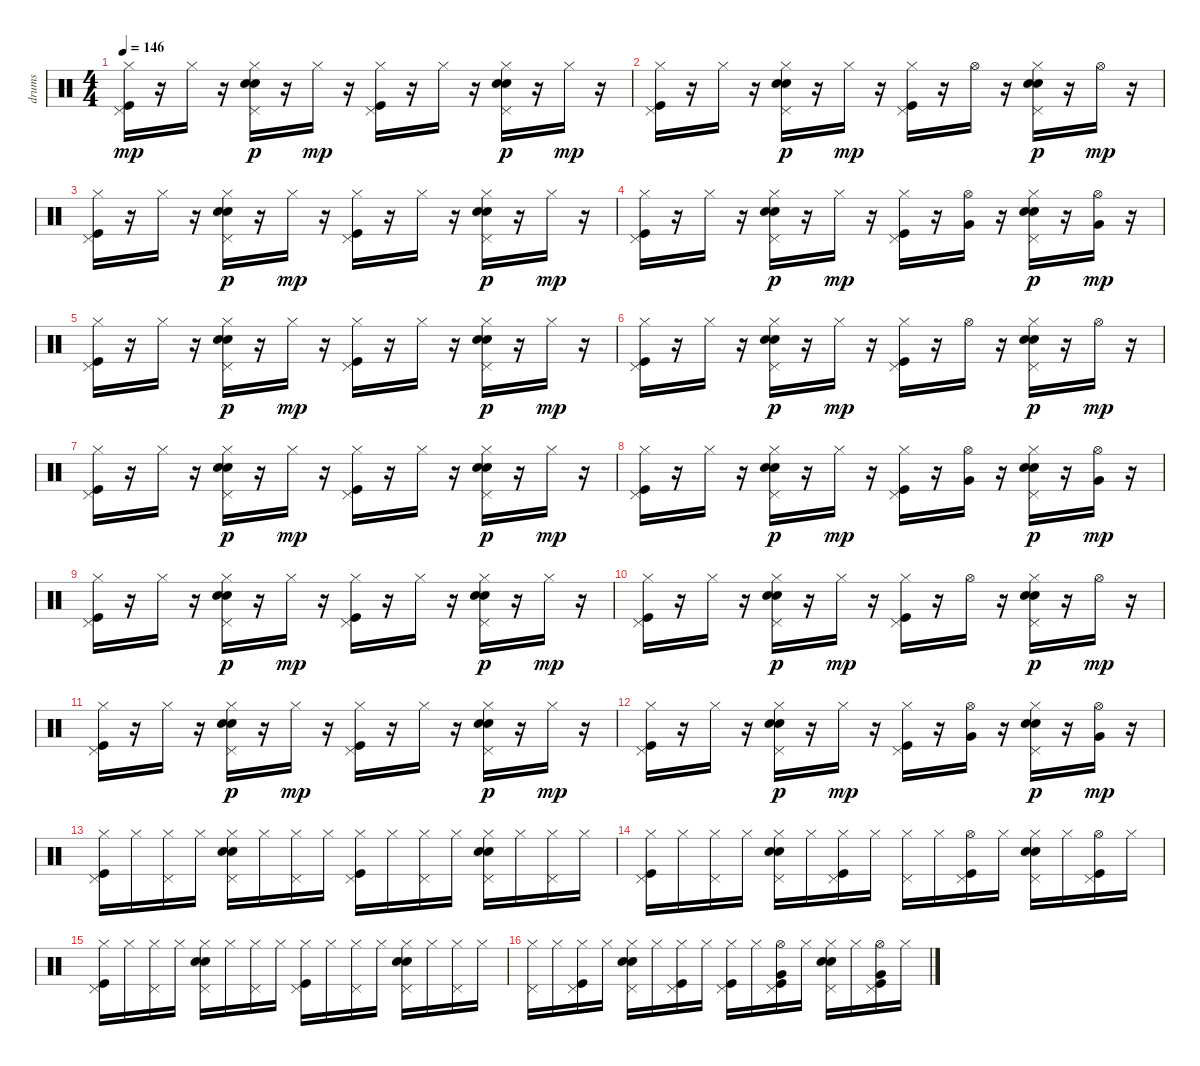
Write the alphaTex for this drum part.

\track ("drums" "drums") {instrument percussion}
\staff {score}
\articulation defaults
\ts (4 4)
\tempo 146
\clef neutral
\ks c
("Kick (hit)" "Pedal Hi-Hat (hit)" "Hi-Hat (closed)").16{dy mp} r.16 "Hi-Hat (closed)".16 r.16 ("Pedal Hi-Hat (hit)" "Snare (hit) 2" "Hi-Hat (closed)" "Electric Snare (hit)").16{dy p} r.16 "Hi-Hat (closed)".16{dy mp} r.16 ("Kick (hit)" "Pedal Hi-Hat (hit)" "Hi-Hat (closed)").16 r.16 "Hi-Hat (closed)".16 r.16 ("Pedal Hi-Hat (hit)" "Snare (hit) 2" "Hi-Hat (closed)" "Electric Snare (hit)").16{dy p} r.16 "Hi-Hat (closed)".16{dy mp} r.16 |
("Kick (hit)" "Pedal Hi-Hat (hit)" "Hi-Hat (closed)").16 r.16 "Hi-Hat (closed)".16 r.16 ("Pedal Hi-Hat (hit)" "Snare (hit) 2" "Hi-Hat (closed)" "Electric Snare (hit)").16{dy p} r.16 "Hi-Hat (closed)".16{dy mp} r.16 ("Kick (hit)" "Pedal Hi-Hat (hit)" "Hi-Hat (closed)").16 r.16 "Hi-Hat (open)".16 r.16 ("Pedal Hi-Hat (hit)" "Snare (hit) 2" "Hi-Hat (closed)" "Electric Snare (hit)").16{dy p} r.16 "Hi-Hat (open)".16{dy mp} r.16 |
("Kick (hit)" "Pedal Hi-Hat (hit)" "Hi-Hat (closed)").16 r.16 "Hi-Hat (closed)".16 r.16 ("Pedal Hi-Hat (hit)" "Snare (hit) 2" "Hi-Hat (closed)" "Electric Snare (hit)").16{dy p} r.16 "Hi-Hat (closed)".16{dy mp} r.16 ("Kick (hit)" "Pedal Hi-Hat (hit)" "Hi-Hat (closed)").16 r.16 "Hi-Hat (closed)".16 r.16 ("Pedal Hi-Hat (hit)" "Snare (hit) 2" "Hi-Hat (closed)" "Electric Snare (hit)").16{dy p} r.16 "Hi-Hat (closed)".16{dy mp} r.16 |
("Kick (hit)" "Pedal Hi-Hat (hit)" "Hi-Hat (closed)").16 r.16 "Hi-Hat (closed)".16 r.16 ("Pedal Hi-Hat (hit)" "Snare (hit) 2" "Hi-Hat (closed)" "Electric Snare (hit)").16{dy p} r.16 "Hi-Hat (closed)".16{dy mp} r.16 ("Kick (hit)" "Pedal Hi-Hat (hit)" "Hi-Hat (closed)").16 r.16 ("Hi-Hat (open)" "Very Low Tom (hit)").16 r.16 ("Pedal Hi-Hat (hit)" "Snare (hit) 2" "Hi-Hat (closed)" "Electric Snare (hit)").16{dy p} r.16 ("Hi-Hat (open)" "Very Low Tom (hit)").16{dy mp} r.16 |
("Kick (hit)" "Pedal Hi-Hat (hit)" "Hi-Hat (closed)").16 r.16 "Hi-Hat (closed)".16 r.16 ("Pedal Hi-Hat (hit)" "Snare (hit) 2" "Hi-Hat (closed)" "Electric Snare (hit)").16{dy p} r.16 "Hi-Hat (closed)".16{dy mp} r.16 ("Kick (hit)" "Pedal Hi-Hat (hit)" "Hi-Hat (closed)").16 r.16 "Hi-Hat (closed)".16 r.16 ("Pedal Hi-Hat (hit)" "Snare (hit) 2" "Hi-Hat (closed)" "Electric Snare (hit)").16{dy p} r.16 "Hi-Hat (closed)".16{dy mp} r.16 |
("Kick (hit)" "Pedal Hi-Hat (hit)" "Hi-Hat (closed)").16 r.16 "Hi-Hat (closed)".16 r.16 ("Pedal Hi-Hat (hit)" "Snare (hit) 2" "Hi-Hat (closed)" "Electric Snare (hit)").16{dy p} r.16 "Hi-Hat (closed)".16{dy mp} r.16 ("Kick (hit)" "Pedal Hi-Hat (hit)" "Hi-Hat (closed)").16 r.16 "Hi-Hat (open)".16 r.16 ("Pedal Hi-Hat (hit)" "Snare (hit) 2" "Hi-Hat (closed)" "Electric Snare (hit)").16{dy p} r.16 "Hi-Hat (open)".16{dy mp} r.16 |
("Kick (hit)" "Pedal Hi-Hat (hit)" "Hi-Hat (closed)").16 r.16 "Hi-Hat (closed)".16 r.16 ("Pedal Hi-Hat (hit)" "Snare (hit) 2" "Hi-Hat (closed)" "Electric Snare (hit)").16{dy p} r.16 "Hi-Hat (closed)".16{dy mp} r.16 ("Kick (hit)" "Pedal Hi-Hat (hit)" "Hi-Hat (closed)").16 r.16 "Hi-Hat (closed)".16 r.16 ("Pedal Hi-Hat (hit)" "Snare (hit) 2" "Hi-Hat (closed)" "Electric Snare (hit)").16{dy p} r.16 "Hi-Hat (closed)".16{dy mp} r.16 |
("Kick (hit)" "Pedal Hi-Hat (hit)" "Hi-Hat (closed)").16 r.16 "Hi-Hat (closed)".16 r.16 ("Pedal Hi-Hat (hit)" "Snare (hit) 2" "Hi-Hat (closed)" "Electric Snare (hit)").16{dy p} r.16 "Hi-Hat (closed)".16{dy mp} r.16 ("Kick (hit)" "Pedal Hi-Hat (hit)" "Hi-Hat (closed)").16 r.16 ("Hi-Hat (open)" "Very Low Tom (hit)").16 r.16 ("Pedal Hi-Hat (hit)" "Snare (hit) 2" "Hi-Hat (closed)" "Electric Snare (hit)").16{dy p} r.16 ("Hi-Hat (open)" "Very Low Tom (hit)").16{dy mp} r.16 |
("Kick (hit)" "Pedal Hi-Hat (hit)" "Hi-Hat (closed)").16 r.16 "Hi-Hat (closed)".16 r.16 ("Pedal Hi-Hat (hit)" "Snare (hit) 2" "Hi-Hat (closed)" "Electric Snare (hit)").16{dy p} r.16 "Hi-Hat (closed)".16{dy mp} r.16 ("Kick (hit)" "Pedal Hi-Hat (hit)" "Hi-Hat (closed)").16 r.16 "Hi-Hat (closed)".16 r.16 ("Pedal Hi-Hat (hit)" "Snare (hit) 2" "Hi-Hat (closed)" "Electric Snare (hit)").16{dy p} r.16 "Hi-Hat (closed)".16{dy mp} r.16 |
("Kick (hit)" "Pedal Hi-Hat (hit)" "Hi-Hat (closed)").16 r.16 "Hi-Hat (closed)".16 r.16 ("Pedal Hi-Hat (hit)" "Snare (hit) 2" "Hi-Hat (closed)" "Electric Snare (hit)").16{dy p} r.16 "Hi-Hat (closed)".16{dy mp} r.16 ("Kick (hit)" "Pedal Hi-Hat (hit)" "Hi-Hat (closed)").16 r.16 "Hi-Hat (open)".16 r.16 ("Pedal Hi-Hat (hit)" "Snare (hit) 2" "Hi-Hat (closed)" "Electric Snare (hit)").16{dy p} r.16 "Hi-Hat (open)".16{dy mp} r.16 |
("Kick (hit)" "Pedal Hi-Hat (hit)" "Hi-Hat (closed)").16 r.16 "Hi-Hat (closed)".16 r.16 ("Pedal Hi-Hat (hit)" "Snare (hit) 2" "Hi-Hat (closed)" "Electric Snare (hit)").16{dy p} r.16 "Hi-Hat (closed)".16{dy mp} r.16 ("Kick (hit)" "Pedal Hi-Hat (hit)" "Hi-Hat (closed)").16 r.16 "Hi-Hat (closed)".16 r.16 ("Pedal Hi-Hat (hit)" "Snare (hit) 2" "Hi-Hat (closed)" "Electric Snare (hit)").16{dy p} r.16 "Hi-Hat (closed)".16{dy mp} r.16 |
("Kick (hit)" "Pedal Hi-Hat (hit)" "Hi-Hat (closed)").16 r.16 "Hi-Hat (closed)".16 r.16 ("Pedal Hi-Hat (hit)" "Snare (hit) 2" "Hi-Hat (closed)" "Electric Snare (hit)").16{dy p} r.16 "Hi-Hat (closed)".16{dy mp} r.16 ("Kick (hit)" "Pedal Hi-Hat (hit)" "Hi-Hat (closed)").16 r.16 ("Hi-Hat (open)" "Very Low Tom (hit)").16 r.16 ("Pedal Hi-Hat (hit)" "Snare (hit) 2" "Hi-Hat (closed)" "Electric Snare (hit)").16{dy p} r.16 ("Hi-Hat (open)" "Very Low Tom (hit)").16{dy mp} r.16 |
("Kick (hit)" "Pedal Hi-Hat (hit)" "Hi-Hat (closed)").16 "Hi-Hat (closed)".16 ("Hi-Hat (closed)" "Pedal Hi-Hat (hit)").16 "Hi-Hat (closed)".16 ("Snare (hit) 2" "Hi-Hat (closed)" "Electric Snare (hit)" "Pedal Hi-Hat (hit)").16 "Hi-Hat (closed)".16 ("Hi-Hat (closed)" "Pedal Hi-Hat (hit)").16 "Hi-Hat (closed)".16 ("Kick (hit)" "Hi-Hat (closed)" "Pedal Hi-Hat (hit)").16 "Hi-Hat (closed)".16 ("Hi-Hat (closed)" "Pedal Hi-Hat (hit)").16 "Hi-Hat (closed)".16 ("Snare (hit) 2" "Hi-Hat (closed)" "Electric Snare (hit)" "Pedal Hi-Hat (hit)").16 "Hi-Hat (closed)".16 ("Hi-Hat (closed)" "Pedal Hi-Hat (hit)").16 "Hi-Hat (closed)".16 |
("Kick (hit)" "Hi-Hat (closed)" "Pedal Hi-Hat (hit)").16 "Hi-Hat (closed)".16 ("Hi-Hat (closed)" "Pedal Hi-Hat (hit)").16 "Hi-Hat (closed)".16 ("Snare (hit) 2" "Hi-Hat (closed)" "Electric Snare (hit)" "Pedal Hi-Hat (hit)").16 "Hi-Hat (closed)".16 ("Hi-Hat (closed)" "Pedal Hi-Hat (hit)" "Kick (hit)").16 "Hi-Hat (closed)".16 ("Hi-Hat (closed)" "Pedal Hi-Hat (hit)").16 "Hi-Hat (closed)".16 ("Hi-Hat (open)" "Pedal Hi-Hat (hit)" "Kick (hit)").16 "Hi-Hat (closed)".16 ("Snare (hit) 2" "Hi-Hat (closed)" "Electric Snare (hit)" "Pedal Hi-Hat (hit)").16 "Hi-Hat (closed)".16 ("Hi-Hat (open)" "Pedal Hi-Hat (hit)" "Kick (hit)").16 "Hi-Hat (closed)".16 |
("Kick (hit)" "Hi-Hat (closed)" "Pedal Hi-Hat (hit)").16 "Hi-Hat (closed)".16 ("Hi-Hat (closed)" "Pedal Hi-Hat (hit)").16 "Hi-Hat (closed)".16 ("Snare (hit) 2" "Hi-Hat (closed)" "Electric Snare (hit)" "Pedal Hi-Hat (hit)").16 "Hi-Hat (closed)".16 ("Hi-Hat (closed)" "Pedal Hi-Hat (hit)").16 "Hi-Hat (closed)".16 ("Kick (hit)" "Hi-Hat (closed)" "Pedal Hi-Hat (hit)").16 "Hi-Hat (closed)".16 ("Hi-Hat (closed)" "Pedal Hi-Hat (hit)").16 "Hi-Hat (closed)".16 ("Snare (hit) 2" "Hi-Hat (closed)" "Electric Snare (hit)" "Pedal Hi-Hat (hit)").16 "Hi-Hat (closed)".16 ("Hi-Hat (closed)" "Pedal Hi-Hat (hit)").16 "Hi-Hat (closed)".16 |
("Hi-Hat (closed)" "Pedal Hi-Hat (hit)").16 "Hi-Hat (closed)".16 ("Hi-Hat (closed)" "Pedal Hi-Hat (hit)" "Kick (hit)").16 "Hi-Hat (closed)".16 ("Snare (hit) 2" "Hi-Hat (closed)" "Electric Snare (hit)" "Pedal Hi-Hat (hit)").16 "Hi-Hat (closed)".16 ("Hi-Hat (closed)" "Pedal Hi-Hat (hit)" "Kick (hit)").16 "Hi-Hat (closed)".16 ("Kick (hit)" "Hi-Hat (closed)" "Pedal Hi-Hat (hit)").16 "Hi-Hat (closed)".16 ("Hi-Hat (open)" "Very Low Tom (hit)" "Pedal Hi-Hat (hit)" "Kick (hit)").16 "Hi-Hat (closed)".16 ("Snare (hit) 2" "Hi-Hat (closed)" "Electric Snare (hit)" "Pedal Hi-Hat (hit)").16 "Hi-Hat (closed)".16 ("Hi-Hat (open)" "Very Low Tom (hit)" "Pedal Hi-Hat (hit)" "Kick (hit)").16 "Hi-Hat (closed)".16
